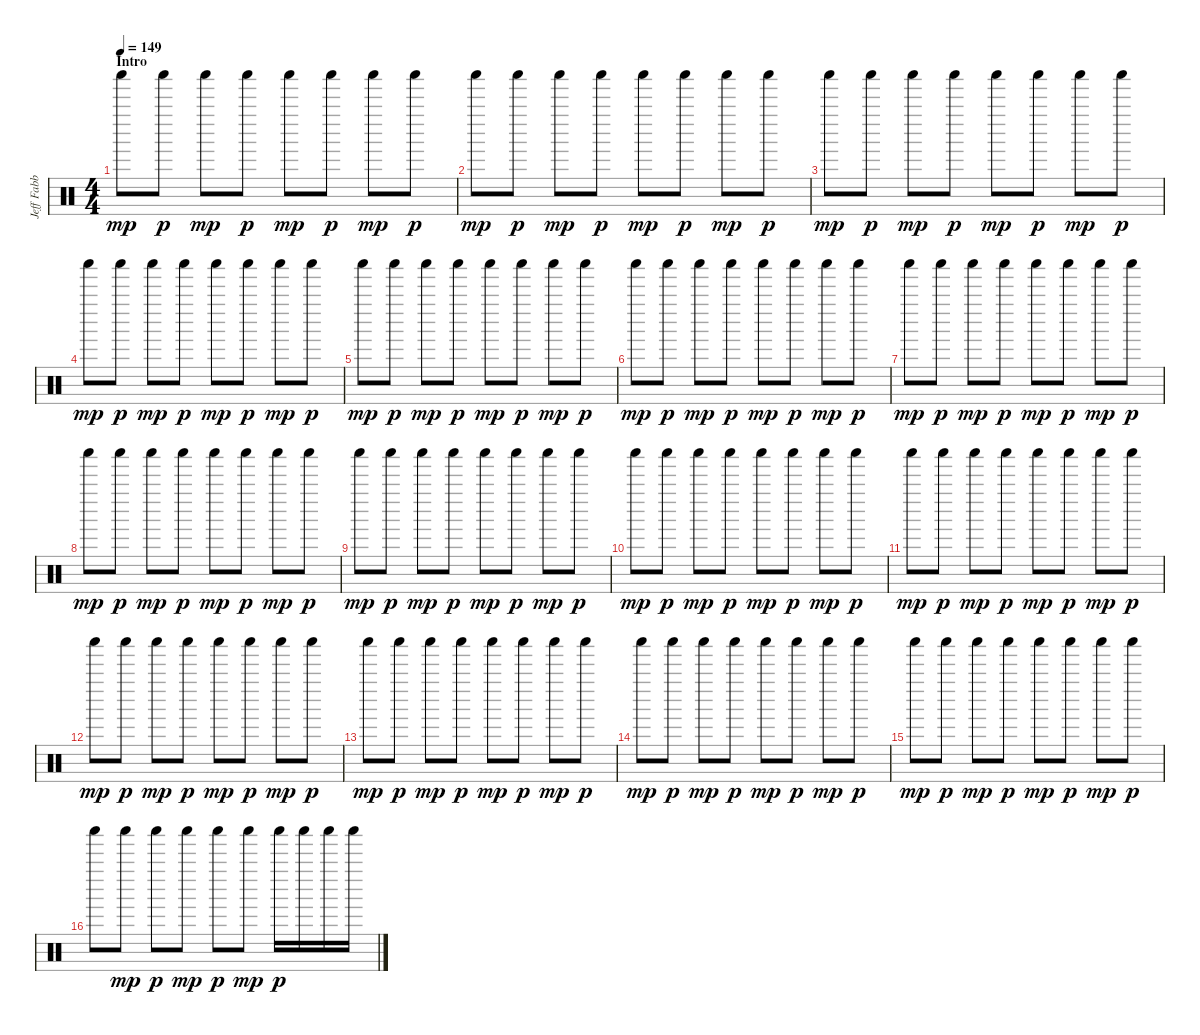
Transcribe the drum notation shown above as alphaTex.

\track ("Jeff Fabb " "Jeff Fabb ") {instrument percussion}
\staff {score}
\articulation defaults
\ts (4 4)
\section ("" "Intro")
\tempo 149
\clef neutral
\ks c "Shaker (hit)".8{dy mp} "Shaker (hit)".8{dy p} "Shaker (hit)".8{dy mp} "Shaker (hit)".8{dy p} "Shaker (hit)".8{dy mp} "Shaker (hit)".8{dy p} "Shaker (hit)".8{dy mp} "Shaker (hit)".8{dy p}
|
"Shaker (hit)".8{dy mp} "Shaker (hit)".8{dy p} "Shaker (hit)".8{dy mp} "Shaker (hit)".8{dy p} "Shaker (hit)".8{dy mp} "Shaker (hit)".8{dy p} "Shaker (hit)".8{dy mp} "Shaker (hit)".8{dy p} |
"Shaker (hit)".8{dy mp} "Shaker (hit)".8{dy p} "Shaker (hit)".8{dy mp} "Shaker (hit)".8{dy p} "Shaker (hit)".8{dy mp} "Shaker (hit)".8{dy p} "Shaker (hit)".8{dy mp} "Shaker (hit)".8{dy p} |
"Shaker (hit)".8{dy mp} "Shaker (hit)".8{dy p} "Shaker (hit)".8{dy mp} "Shaker (hit)".8{dy p} "Shaker (hit)".8{dy mp} "Shaker (hit)".8{dy p} "Shaker (hit)".8{dy mp} "Shaker (hit)".8{dy p} |
"Shaker (hit)".8{dy mp} "Shaker (hit)".8{dy p} "Shaker (hit)".8{dy mp} "Shaker (hit)".8{dy p} "Shaker (hit)".8{dy mp} "Shaker (hit)".8{dy p} "Shaker (hit)".8{dy mp} "Shaker (hit)".8{dy p} |
"Shaker (hit)".8{dy mp} "Shaker (hit)".8{dy p} "Shaker (hit)".8{dy mp} "Shaker (hit)".8{dy p} "Shaker (hit)".8{dy mp} "Shaker (hit)".8{dy p} "Shaker (hit)".8{dy mp} "Shaker (hit)".8{dy p} |
"Shaker (hit)".8{dy mp} "Shaker (hit)".8{dy p} "Shaker (hit)".8{dy mp} "Shaker (hit)".8{dy p} "Shaker (hit)".8{dy mp} "Shaker (hit)".8{dy p} "Shaker (hit)".8{dy mp} "Shaker (hit)".8{dy p} |
"Shaker (hit)".8{dy mp} "Shaker (hit)".8{dy p} "Shaker (hit)".8{dy mp} "Shaker (hit)".8{dy p} "Shaker (hit)".8{dy mp} "Shaker (hit)".8{dy p} "Shaker (hit)".8{dy mp} "Shaker (hit)".8{dy p} |
"Shaker (hit)".8{dy mp} "Shaker (hit)".8{dy p} "Shaker (hit)".8{dy mp} "Shaker (hit)".8{dy p} "Shaker (hit)".8{dy mp} "Shaker (hit)".8{dy p} "Shaker (hit)".8{dy mp} "Shaker (hit)".8{dy p} |
"Shaker (hit)".8{dy mp} "Shaker (hit)".8{dy p} "Shaker (hit)".8{dy mp} "Shaker (hit)".8{dy p} "Shaker (hit)".8{dy mp} "Shaker (hit)".8{dy p} "Shaker (hit)".8{dy mp} "Shaker (hit)".8{dy p} |
"Shaker (hit)".8{dy mp} "Shaker (hit)".8{dy p} "Shaker (hit)".8{dy mp} "Shaker (hit)".8{dy p} "Shaker (hit)".8{dy mp} "Shaker (hit)".8{dy p} "Shaker (hit)".8{dy mp} "Shaker (hit)".8{dy p} |
"Shaker (hit)".8{dy mp} "Shaker (hit)".8{dy p} "Shaker (hit)".8{dy mp} "Shaker (hit)".8{dy p} "Shaker (hit)".8{dy mp} "Shaker (hit)".8{dy p} "Shaker (hit)".8{dy mp} "Shaker (hit)".8{dy p} |
"Shaker (hit)".8{dy mp} "Shaker (hit)".8{dy p} "Shaker (hit)".8{dy mp} "Shaker (hit)".8{dy p} "Shaker (hit)".8{dy mp} "Shaker (hit)".8{dy p} "Shaker (hit)".8{dy mp} "Shaker (hit)".8{dy p} |
"Shaker (hit)".8{dy mp} "Shaker (hit)".8{dy p} "Shaker (hit)".8{dy mp} "Shaker (hit)".8{dy p} "Shaker (hit)".8{dy mp} "Shaker (hit)".8{dy p} "Shaker (hit)".8{dy mp} "Shaker (hit)".8{dy p} |
"Shaker (hit)".8{dy mp} "Shaker (hit)".8{dy p} "Shaker (hit)".8{dy mp} "Shaker (hit)".8{dy p} "Shaker (hit)".8{dy mp} "Shaker (hit)".8{dy p} "Shaker (hit)".8{dy mp} "Shaker (hit)".8{dy p} |
"Shaker (hit)".8 "Shaker (hit)".8{dy mp} "Shaker (hit)".8{dy p} "Shaker (hit)".8{dy mp} "Shaker (hit)".8{dy p} "Shaker (hit)".8{dy mp} "Shaker (hit)".16{dy p} "Shaker (hit)".16 "Shaker (hit)".16 "Shaker (hit)".16
